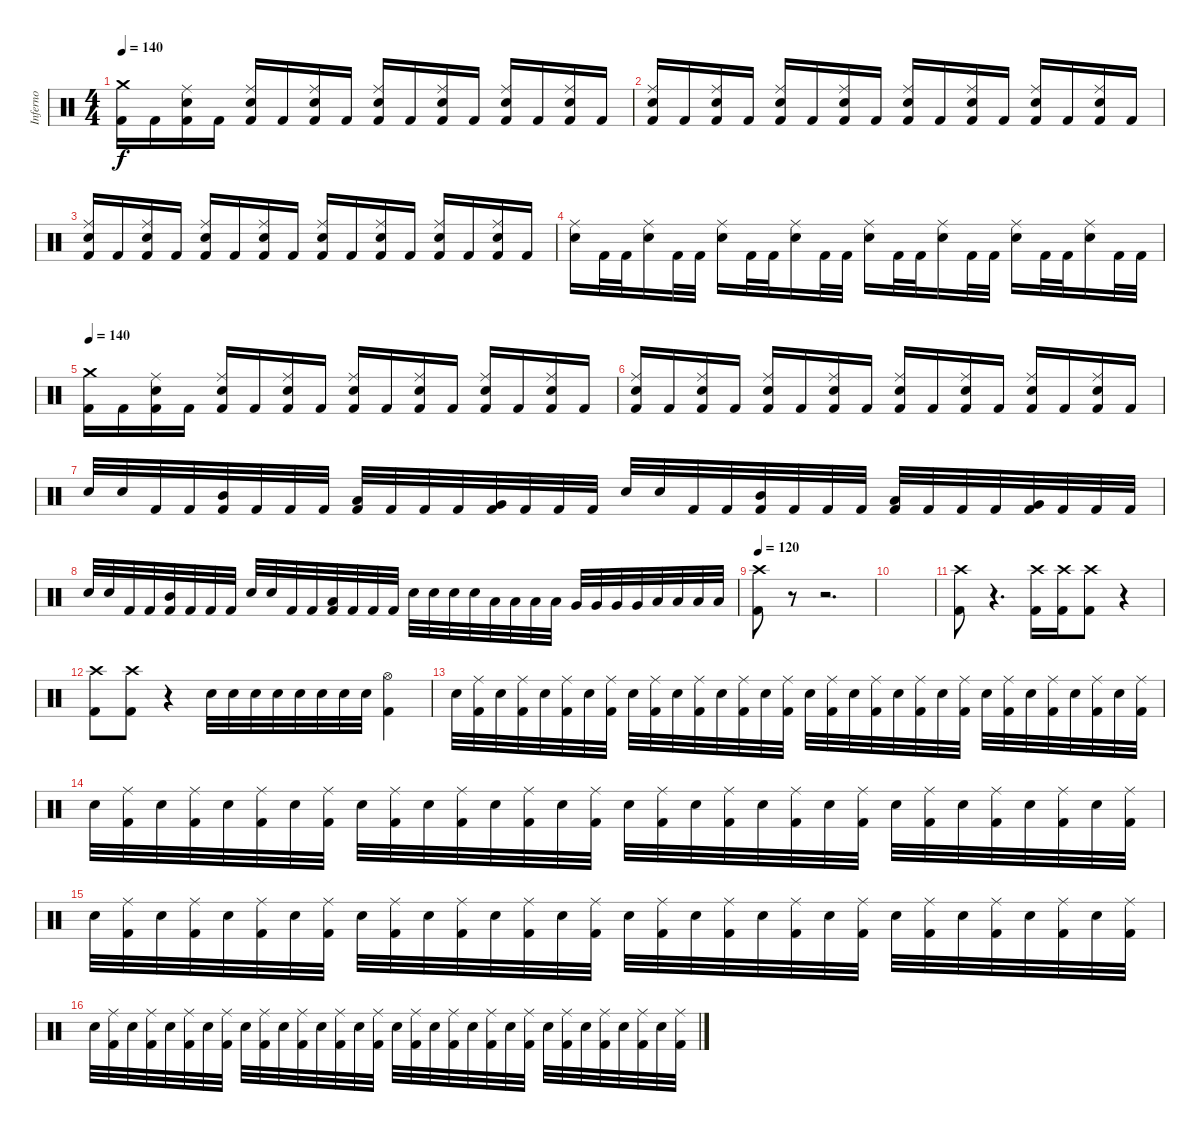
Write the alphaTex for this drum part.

\track ("Inferno" "Inferno") {instrument percussion}
\staff {score}
\articulation defaults
\ts (4 4)
\tempo 140
\clef neutral
\ks c
("Crash medium (hit)" "Kick (hit) 2").16{dy f} "Kick (hit) 2".16 ("Ride (middle)" "Electric Snare (hit)" "Kick (hit) 2").16 "Kick (hit) 2".16 ("Ride (middle)" "Electric Snare (hit)" "Kick (hit) 2").16 "Kick (hit) 2".16 ("Ride (middle)" "Electric Snare (hit)" "Kick (hit) 2").16 "Kick (hit) 2".16 ("Ride (middle)" "Electric Snare (hit)" "Kick (hit) 2").16 "Kick (hit) 2".16 ("Ride (middle)" "Electric Snare (hit)" "Kick (hit) 2").16 "Kick (hit) 2".16 ("Ride (middle)" "Electric Snare (hit)" "Kick (hit) 2").16 "Kick (hit) 2".16 ("Ride (middle)" "Electric Snare (hit)" "Kick (hit) 2").16 "Kick (hit) 2".16 |
("Ride (middle)" "Electric Snare (hit)" "Kick (hit) 2").16 "Kick (hit) 2".16 ("Ride (middle)" "Electric Snare (hit)" "Kick (hit) 2").16 "Kick (hit) 2".16 ("Ride (middle)" "Electric Snare (hit)" "Kick (hit) 2").16 "Kick (hit) 2".16 ("Ride (middle)" "Electric Snare (hit)" "Kick (hit) 2").16 "Kick (hit) 2".16 ("Ride (middle)" "Electric Snare (hit)" "Kick (hit) 2").16 "Kick (hit) 2".16 ("Ride (middle)" "Electric Snare (hit)" "Kick (hit) 2").16 "Kick (hit) 2".16 ("Ride (middle)" "Electric Snare (hit)" "Kick (hit) 2").16 "Kick (hit) 2".16 ("Ride (middle)" "Electric Snare (hit)" "Kick (hit) 2").16 "Kick (hit) 2".16 |
("Ride (middle)" "Electric Snare (hit)" "Kick (hit) 2").16 "Kick (hit) 2".16 ("Ride (middle)" "Electric Snare (hit)" "Kick (hit) 2").16 "Kick (hit) 2".16 ("Ride (middle)" "Electric Snare (hit)" "Kick (hit) 2").16 "Kick (hit) 2".16 ("Ride (middle)" "Electric Snare (hit)" "Kick (hit) 2").16 "Kick (hit) 2".16 ("Ride (middle)" "Electric Snare (hit)" "Kick (hit) 2").16 "Kick (hit) 2".16 ("Ride (middle)" "Electric Snare (hit)" "Kick (hit) 2").16 "Kick (hit) 2".16 ("Ride (middle)" "Electric Snare (hit)" "Kick (hit) 2").16 "Kick (hit) 2".16 ("Ride (middle)" "Electric Snare (hit)" "Kick (hit) 2").16 "Kick (hit) 2".16 |
("Ride (middle)" "Electric Snare (hit)").16 "Kick (hit) 2".32 "Kick (hit) 2".32 ("Ride (middle)" "Electric Snare (hit)").16 "Kick (hit) 2".32 "Kick (hit) 2".32 ("Ride (middle)" "Electric Snare (hit)").16 "Kick (hit) 2".32 "Kick (hit) 2".32 ("Ride (middle)" "Electric Snare (hit)").16 "Kick (hit) 2".32 "Kick (hit) 2".32 ("Ride (middle)" "Electric Snare (hit)").16 "Kick (hit) 2".32 "Kick (hit) 2".32 ("Ride (middle)" "Electric Snare (hit)").16 "Kick (hit) 2".32 "Kick (hit) 2".32 ("Ride (middle)" "Electric Snare (hit)").16 "Kick (hit) 2".32 "Kick (hit) 2".32 ("Ride (middle)" "Electric Snare (hit)").16 "Kick (hit) 2".32 "Kick (hit) 2".32 |
\tempo 140
("Crash medium (hit)" "Kick (hit) 2").16 "Kick (hit) 2".16 ("Ride (middle)" "Electric Snare (hit)" "Kick (hit) 2").16 "Kick (hit) 2".16 ("Ride (middle)" "Electric Snare (hit)" "Kick (hit) 2").16 "Kick (hit) 2".16 ("Ride (middle)" "Electric Snare (hit)" "Kick (hit) 2").16 "Kick (hit) 2".16 ("Ride (middle)" "Electric Snare (hit)" "Kick (hit) 2").16 "Kick (hit) 2".16 ("Ride (middle)" "Electric Snare (hit)" "Kick (hit) 2").16 "Kick (hit) 2".16 ("Ride (middle)" "Electric Snare (hit)" "Kick (hit) 2").16 "Kick (hit) 2".16 ("Ride (middle)" "Electric Snare (hit)" "Kick (hit) 2").16 "Kick (hit) 2".16 |
("Ride (middle)" "Electric Snare (hit)" "Kick (hit) 2").16 "Kick (hit) 2".16 ("Ride (middle)" "Electric Snare (hit)" "Kick (hit) 2").16 "Kick (hit) 2".16 ("Ride (middle)" "Electric Snare (hit)" "Kick (hit) 2").16 "Kick (hit) 2".16 ("Ride (middle)" "Electric Snare (hit)" "Kick (hit) 2").16 "Kick (hit) 2".16 ("Ride (middle)" "Electric Snare (hit)" "Kick (hit) 2").16 "Kick (hit) 2".16 ("Ride (middle)" "Electric Snare (hit)" "Kick (hit) 2").16 "Kick (hit) 2".16 ("Ride (middle)" "Electric Snare (hit)" "Kick (hit) 2").16 "Kick (hit) 2".16 ("Ride (middle)" "Electric Snare (hit)" "Kick (hit) 2").16 "Kick (hit) 2".16 |
"Electric Snare (hit)".32 "Electric Snare (hit)".32 "Kick (hit) 2".32 "Kick (hit) 2".32 ("Mid Tom (hit)" "Kick (hit) 2").32 "Kick (hit) 2".32 "Kick (hit) 2".32 "Kick (hit) 2".32 ("Low Tom (hit)" "Kick (hit) 2").32 "Kick (hit) 2".32 "Kick (hit) 2".32 "Kick (hit) 2".32 ("Very Low Tom (hit)" "Kick (hit) 2").32 "Kick (hit) 2".32 "Kick (hit) 2".32 "Kick (hit) 2".32 "Electric Snare (hit)".32 "Electric Snare (hit)".32 "Kick (hit) 2".32 "Kick (hit) 2".32 ("Mid Tom (hit)" "Kick (hit) 2").32 "Kick (hit) 2".32 "Kick (hit) 2".32 "Kick (hit) 2".32 ("Low Tom (hit)" "Kick (hit) 2").32 "Kick (hit) 2".32 "Kick (hit) 2".32 "Kick (hit) 2".32 ("Very Low Tom (hit)" "Kick (hit) 2").32 "Kick (hit) 2".32 "Kick (hit) 2".32 "Kick (hit) 2".32 |
"Electric Snare (hit)".32 "Electric Snare (hit)".32 "Kick (hit) 2".32 "Kick (hit) 2".32 ("Mid Tom (hit)" "Kick (hit) 2").32 "Kick (hit) 2".32 "Kick (hit) 2".32 "Kick (hit) 2".32 "Electric Snare (hit)".32 "Electric Snare (hit)".32 "Kick (hit) 2".32 "Kick (hit) 2".32 ("Low Tom (hit)" "Kick (hit) 2").32 "Kick (hit) 2".32 "Kick (hit) 2".32 "Kick (hit) 2".32 "Electric Snare (hit)".32 "Electric Snare (hit)".32 "Electric Snare (hit)".32 "Electric Snare (hit)".32 "Low Tom (hit)".32 "Low Tom (hit)".32 "Low Tom (hit)".32 "Low Tom (hit)".32 "Very Low Tom (hit)".32 "Very Low Tom (hit)".32 "Very Low Tom (hit)".32 "Very Low Tom (hit)".32 "Low Floor Tom (hit)".32 "Low Floor Tom (hit)".32 "Low Floor Tom (hit)".32 "Low Floor Tom (hit)".32 |
\tempo 120
("Crash high (hit)" "Kick (hit) 2").8 r.8{volume 0} r.2{d} |
|
("Crash high (hit)" "Kick (hit) 2").8{volume 13} r.4{d volume 0} ("Crash high (hit)" "Kick (hit) 2").16{volume 13} ("Crash high (hit)" "Kick (hit) 2").16 ("Crash high (hit)" "Kick (hit) 2").8 r.4{volume 0} |
("Crash high (hit)" "Kick (hit) 2").8{volume 13} ("Crash high (hit)" "Kick (hit) 2").8 r.4{volume 0} "Electric Snare (hit)".32{volume 13} "Electric Snare (hit)".32 "Electric Snare (hit)".32 "Electric Snare (hit)".32 "Electric Snare (hit)".32 "Electric Snare (hit)".32 "Electric Snare (hit)".32 "Electric Snare (hit)".32 ("Hi-Hat (open)" "Kick (hit) 2").4 |
"Electric Snare (hit)".32 ("Ride (middle)" "Kick (hit) 2").32 "Electric Snare (hit)".32 ("Ride (middle)" "Kick (hit) 2").32 "Electric Snare (hit)".32 ("Ride (middle)" "Kick (hit) 2").32 "Electric Snare (hit)".32 ("Ride (middle)" "Kick (hit) 2").32 "Electric Snare (hit)".32 ("Ride (middle)" "Kick (hit) 2").32 "Electric Snare (hit)".32 ("Ride (middle)" "Kick (hit) 2").32 "Electric Snare (hit)".32 ("Ride (middle)" "Kick (hit) 2").32 "Electric Snare (hit)".32 ("Ride (middle)" "Kick (hit) 2").32 "Electric Snare (hit)".32 ("Ride (middle)" "Kick (hit) 2").32 "Electric Snare (hit)".32 ("Ride (middle)" "Kick (hit) 2").32 "Electric Snare (hit)".32 ("Ride (middle)" "Kick (hit) 2").32 "Electric Snare (hit)".32 ("Ride (middle)" "Kick (hit) 2").32 "Electric Snare (hit)".32 ("Ride (middle)" "Kick (hit) 2").32 "Electric Snare (hit)".32 ("Ride (middle)" "Kick (hit) 2").32 "Electric Snare (hit)".32 ("Ride (middle)" "Kick (hit) 2").32 "Electric Snare (hit)".32 ("Ride (middle)" "Kick (hit) 2").32 |
"Electric Snare (hit)".32 ("Ride (middle)" "Kick (hit) 2").32 "Electric Snare (hit)".32 ("Ride (middle)" "Kick (hit) 2").32 "Electric Snare (hit)".32 ("Ride (middle)" "Kick (hit) 2").32 "Electric Snare (hit)".32 ("Ride (middle)" "Kick (hit) 2").32 "Electric Snare (hit)".32 ("Ride (middle)" "Kick (hit) 2").32 "Electric Snare (hit)".32 ("Ride (middle)" "Kick (hit) 2").32 "Electric Snare (hit)".32 ("Ride (middle)" "Kick (hit) 2").32 "Electric Snare (hit)".32 ("Ride (middle)" "Kick (hit) 2").32 "Electric Snare (hit)".32 ("Ride (middle)" "Kick (hit) 2").32 "Electric Snare (hit)".32 ("Ride (middle)" "Kick (hit) 2").32 "Electric Snare (hit)".32 ("Ride (middle)" "Kick (hit) 2").32 "Electric Snare (hit)".32 ("Ride (middle)" "Kick (hit) 2").32 "Electric Snare (hit)".32 ("Ride (middle)" "Kick (hit) 2").32 "Electric Snare (hit)".32 ("Ride (middle)" "Kick (hit) 2").32 "Electric Snare (hit)".32 ("Ride (middle)" "Kick (hit) 2").32 "Electric Snare (hit)".32 ("Ride (middle)" "Kick (hit) 2").32 |
"Electric Snare (hit)".32 ("Ride (middle)" "Kick (hit) 2").32 "Electric Snare (hit)".32 ("Ride (middle)" "Kick (hit) 2").32 "Electric Snare (hit)".32 ("Ride (middle)" "Kick (hit) 2").32 "Electric Snare (hit)".32 ("Ride (middle)" "Kick (hit) 2").32 "Electric Snare (hit)".32 ("Ride (middle)" "Kick (hit) 2").32 "Electric Snare (hit)".32 ("Ride (middle)" "Kick (hit) 2").32 "Electric Snare (hit)".32 ("Ride (middle)" "Kick (hit) 2").32 "Electric Snare (hit)".32 ("Ride (middle)" "Kick (hit) 2").32 "Electric Snare (hit)".32 ("Ride (middle)" "Kick (hit) 2").32 "Electric Snare (hit)".32 ("Ride (middle)" "Kick (hit) 2").32 "Electric Snare (hit)".32 ("Ride (middle)" "Kick (hit) 2").32 "Electric Snare (hit)".32 ("Ride (middle)" "Kick (hit) 2").32 "Electric Snare (hit)".32 ("Ride (middle)" "Kick (hit) 2").32 "Electric Snare (hit)".32 ("Ride (middle)" "Kick (hit) 2").32 "Electric Snare (hit)".32 ("Ride (middle)" "Kick (hit) 2").32 "Electric Snare (hit)".32 ("Ride (middle)" "Kick (hit) 2").32 |
"Electric Snare (hit)".32 ("Ride (middle)" "Kick (hit) 2").32 "Electric Snare (hit)".32 ("Ride (middle)" "Kick (hit) 2").32 "Electric Snare (hit)".32 ("Ride (middle)" "Kick (hit) 2").32 "Electric Snare (hit)".32 ("Ride (middle)" "Kick (hit) 2").32 "Electric Snare (hit)".32 ("Ride (middle)" "Kick (hit) 2").32 "Electric Snare (hit)".32 ("Ride (middle)" "Kick (hit) 2").32 "Electric Snare (hit)".32 ("Ride (middle)" "Kick (hit) 2").32 "Electric Snare (hit)".32 ("Ride (middle)" "Kick (hit) 2").32 "Electric Snare (hit)".32 ("Ride (middle)" "Kick (hit) 2").32 "Electric Snare (hit)".32 ("Ride (middle)" "Kick (hit) 2").32 "Electric Snare (hit)".32 ("Ride (middle)" "Kick (hit) 2").32 "Electric Snare (hit)".32 ("Ride (middle)" "Kick (hit) 2").32 "Electric Snare (hit)".32 ("Ride (middle)" "Kick (hit) 2").32 "Electric Snare (hit)".32 ("Ride (middle)" "Kick (hit) 2").32 "Electric Snare (hit)".32 ("Ride (middle)" "Kick (hit) 2").32 "Electric Snare (hit)".32 ("Ride (middle)" "Kick (hit) 2").32
